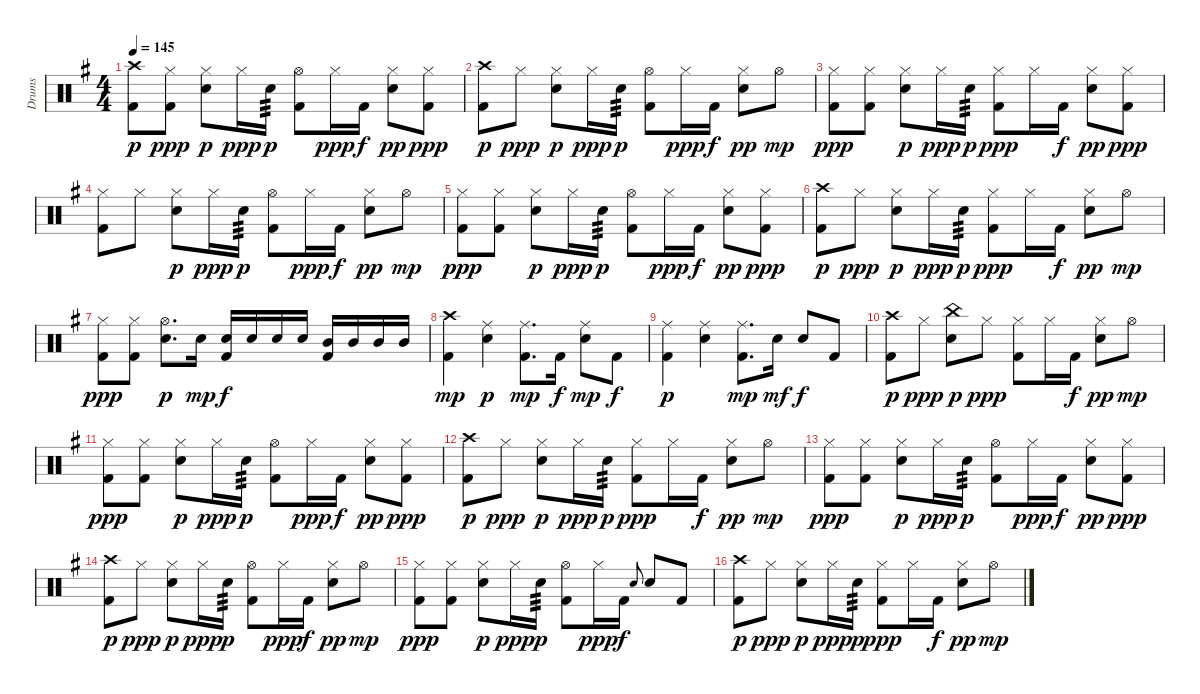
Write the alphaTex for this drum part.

\track ("Drums" "Drums") {instrument percussion}
\staff {score}
\articulation defaults
\ts (4 4)
\tempo 145
\clef neutral
\ks g
("Crash high (hit)" "Kick (hit) 2").8{dy p} ("Hi-Hat (closed)" "Kick (hit) 2").8{dy ppp} ("Hi-Hat (closed)" "Electric Snare (hit)").8{dy p} "Hi-Hat (closed)".16{dy ppp} "Electric Snare (hit)".16{tp 3 dy p} ("Hi-Hat (open)" "Kick (hit) 2").8 "Hi-Hat (closed)".16{dy ppp} "Kick (hit) 2".16{dy f} ("Hi-Hat (closed)" "Electric Snare (hit)").8{dy pp} ("Hi-Hat (closed)" "Kick (hit) 2").8{dy ppp} |
("Crash high (hit)" "Kick (hit) 2").8{dy p} "Hi-Hat (closed)".8{dy ppp} ("Hi-Hat (closed)" "Electric Snare (hit)").8{dy p} "Hi-Hat (closed)".16{dy ppp} "Electric Snare (hit)".16{tp 3 dy p} ("Hi-Hat (open)" "Kick (hit) 2").8 "Hi-Hat (closed)".16{dy ppp} "Kick (hit) 2".16{dy f} ("Hi-Hat (closed)" "Electric Snare (hit)").8{dy pp} "Hi-Hat (open)".8{dy mp} |
("Hi-Hat (closed)" "Kick (hit) 2").8{dy ppp} ("Hi-Hat (closed)" "Kick (hit) 2").8 ("Hi-Hat (closed)" "Electric Snare (hit)").8{dy p} "Hi-Hat (closed)".16{dy ppp} "Electric Snare (hit)".16{tp 3 dy p} ("Hi-Hat (closed)" "Kick (hit) 2").8{dy ppp} "Hi-Hat (closed)".16 "Kick (hit) 2".16{dy f} ("Hi-Hat (closed)" "Electric Snare (hit)").8{dy pp} ("Hi-Hat (closed)" "Kick (hit) 2").8{dy ppp} |
("Hi-Hat (closed)" "Kick (hit) 2").8 "Hi-Hat (closed)".8 ("Hi-Hat (closed)" "Electric Snare (hit)").8{dy p} "Hi-Hat (closed)".16{dy ppp} "Electric Snare (hit)".16{tp 3 dy p} ("Hi-Hat (open)" "Kick (hit) 2").8 "Hi-Hat (closed)".16{dy ppp} "Kick (hit) 2".16{dy f} ("Hi-Hat (closed)" "Electric Snare (hit)").8{dy pp} "Hi-Hat (open)".8{dy mp} |
("Hi-Hat (closed)" "Kick (hit) 2").8{dy ppp} ("Hi-Hat (closed)" "Kick (hit) 2").8 ("Hi-Hat (closed)" "Electric Snare (hit)").8{dy p} "Hi-Hat (closed)".16{dy ppp} "Electric Snare (hit)".16{tp 3 dy p} ("Hi-Hat (open)" "Kick (hit) 2").8 "Hi-Hat (closed)".16{dy ppp} "Kick (hit) 2".16{dy f} ("Hi-Hat (closed)" "Electric Snare (hit)").8{dy pp} ("Hi-Hat (closed)" "Kick (hit) 2").8{dy ppp} |
("Crash high (hit)" "Kick (hit) 2").8{dy p} "Hi-Hat (closed)".8{dy ppp} ("Hi-Hat (closed)" "Electric Snare (hit)").8{dy p} "Hi-Hat (closed)".16{dy ppp} "Electric Snare (hit)".16{tp 3 dy p} ("Hi-Hat (closed)" "Kick (hit) 2").8{dy ppp} "Hi-Hat (closed)".16 "Kick (hit) 2".16{dy f} ("Hi-Hat (closed)" "Electric Snare (hit)").8{dy pp} "Hi-Hat (open)".8{dy mp} |
("Hi-Hat (closed)" "Kick (hit) 2").8{dy ppp} ("Hi-Hat (closed)" "Kick (hit) 2").8 ("Hi-Hat (open)" "Electric Snare (hit)").8{d dy p} "Electric Snare (hit)".16{dy mp} ("Electric Snare (hit)" "Kick (hit) 2").16{dy f} "Electric Snare (hit)".16 "Electric Snare (hit)".16 "Electric Snare (hit)".16 ("Mid Tom (hit)" "Kick (hit) 2").16 "Mid Tom (hit)".16 "Mid Tom (hit)".16 "Mid Tom (hit)".16 |
("Kick (hit) 2" "Crash high (hit)").4{dy mp} ("Electric Snare (hit)" "Ride (middle)").4{dy p} ("Kick (hit) 2" "Ride (middle)").8{d dy mp} "Kick (hit) 2".16{dy f} ("Electric Snare (hit)" "Ride (middle)").8{dy mp} "Kick (hit) 2".8{dy f} |
("Kick (hit) 2" "Ride (middle)").4{dy p} ("Electric Snare (hit)" "Ride (middle)").4 ("Kick (hit) 2" "Ride (middle)").8{d dy mp} "Electric Snare (hit)".16{dy mf} "Electric Snare (hit)".8{dy f} "Kick (hit) 2".8 |
("Crash high (hit)" "Kick (hit) 2").8{dy p} "Hi-Hat (closed)".8{dy ppp} ("China (hit)" "Electric Snare (hit)").8{dy p} "Hi-Hat (closed)".8{dy ppp} ("Hi-Hat (closed)" "Kick (hit) 2").8 "Hi-Hat (closed)".16 "Kick (hit) 2".16{dy f} ("Hi-Hat (closed)" "Electric Snare (hit)").8{dy pp} "Hi-Hat (open)".8{dy mp} |
("Hi-Hat (closed)" "Kick (hit) 2").8{dy ppp} ("Hi-Hat (closed)" "Kick (hit) 2").8 ("Hi-Hat (closed)" "Electric Snare (hit)").8{dy p} "Hi-Hat (closed)".16{dy ppp} "Electric Snare (hit)".16{tp 3 dy p} ("Hi-Hat (open)" "Kick (hit) 2").8 "Hi-Hat (closed)".16{dy ppp} "Kick (hit) 2".16{dy f} ("Hi-Hat (closed)" "Electric Snare (hit)").8{dy pp} ("Hi-Hat (closed)" "Kick (hit) 2").8{dy ppp} |
("Crash high (hit)" "Kick (hit) 2").8{dy p} "Hi-Hat (closed)".8{dy ppp} ("Hi-Hat (closed)" "Electric Snare (hit)").8{dy p} "Hi-Hat (closed)".16{dy ppp} "Electric Snare (hit)".16{tp 3 dy p} ("Hi-Hat (closed)" "Kick (hit) 2").8{dy ppp} "Hi-Hat (closed)".16 "Kick (hit) 2".16{dy f} ("Hi-Hat (closed)" "Electric Snare (hit)").8{dy pp} "Hi-Hat (open)".8{dy mp} |
("Hi-Hat (closed)" "Kick (hit) 2").8{dy ppp} ("Hi-Hat (closed)" "Kick (hit) 2").8 ("Hi-Hat (closed)" "Electric Snare (hit)").8{dy p} "Hi-Hat (closed)".16{dy ppp} "Electric Snare (hit)".16{tp 3 dy p} ("Hi-Hat (open)" "Kick (hit) 2").8 "Hi-Hat (closed)".16{dy ppp} "Kick (hit) 2".16{dy f} ("Hi-Hat (closed)" "Electric Snare (hit)").8{dy pp} ("Hi-Hat (closed)" "Kick (hit) 2").8{dy ppp} |
("Crash high (hit)" "Kick (hit) 2").8{dy p} "Hi-Hat (closed)".8{dy ppp} ("Hi-Hat (closed)" "Electric Snare (hit)").8{dy p} "Hi-Hat (closed)".16{dy ppp} "Electric Snare (hit)".16{tp 3 dy p} ("Hi-Hat (open)" "Kick (hit) 2").8 "Hi-Hat (closed)".16{dy ppp} "Kick (hit) 2".16{dy f} ("Hi-Hat (closed)" "Electric Snare (hit)").8{dy pp} "Hi-Hat (open)".8{dy mp} |
("Hi-Hat (closed)" "Kick (hit) 2").8{dy ppp} ("Hi-Hat (closed)" "Kick (hit) 2").8 ("Hi-Hat (closed)" "Electric Snare (hit)").8{dy p} "Hi-Hat (closed)".16{dy ppp} "Electric Snare (hit)".16{tp 3 dy p} ("Hi-Hat (open)" "Kick (hit) 2").8 "Hi-Hat (closed)".16{dy ppp} "Kick (hit) 2".16{dy f} "Electric Snare (hit)".8{gr onbeat} "Electric Snare (hit)".8 "Kick (hit) 2".8 |
("Crash high (hit)" "Kick (hit) 2").8{dy p} "Hi-Hat (closed)".8{dy ppp} ("Hi-Hat (closed)" "Electric Snare (hit)").8{dy p} "Hi-Hat (closed)".16{dy ppp} "Electric Snare (hit)".16{tp 3 dy p} ("Hi-Hat (closed)" "Kick (hit) 2").8{dy ppp} "Hi-Hat (closed)".16 "Kick (hit) 2".16{dy f} ("Hi-Hat (closed)" "Electric Snare (hit)").8{dy pp} "Hi-Hat (open)".8{dy mp}
